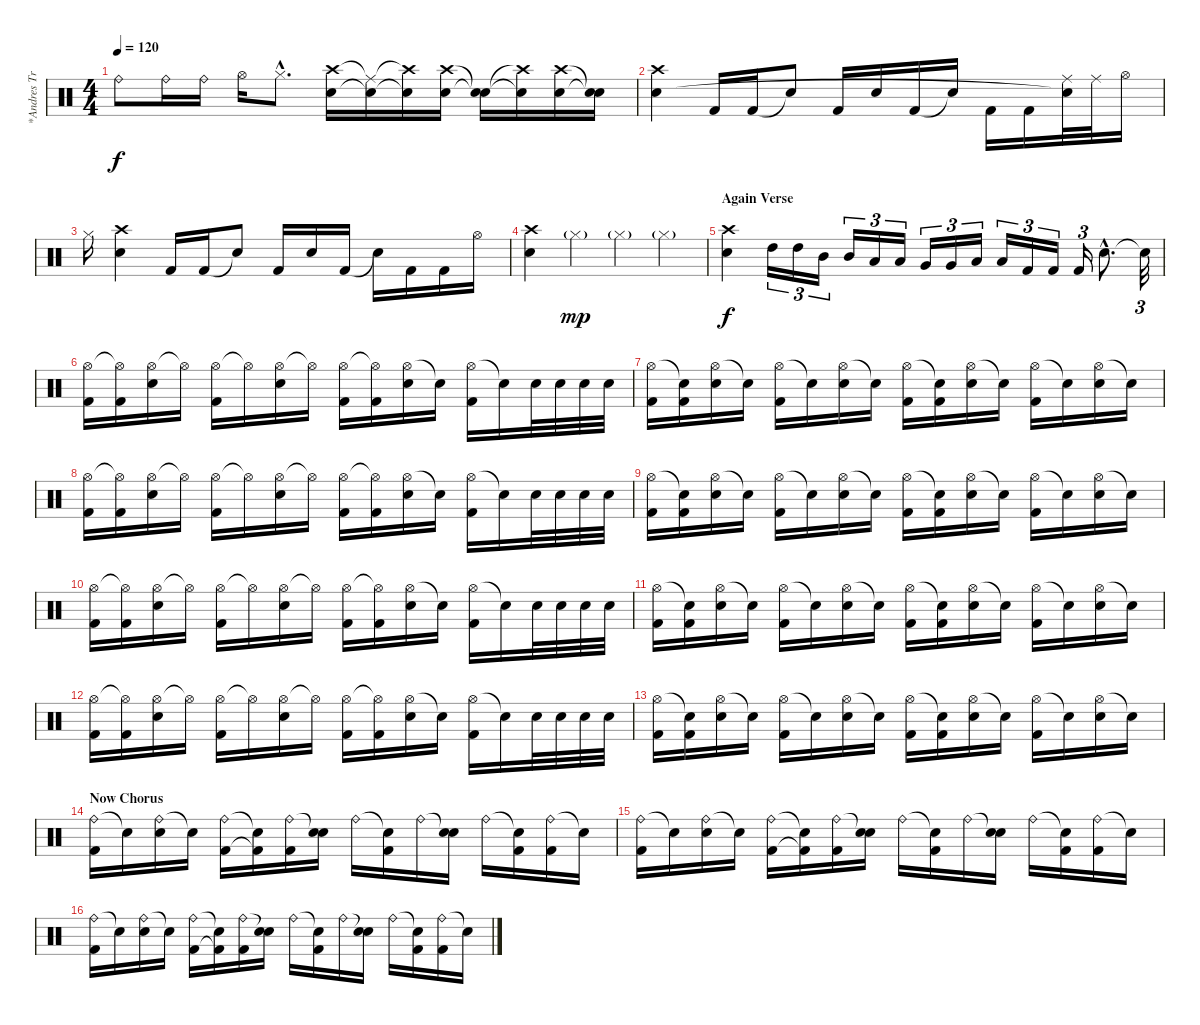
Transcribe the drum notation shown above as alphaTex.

\track ("*Andres Trujillo" "*Andres Tr") {instrument percussion}
\staff {score}
\articulation defaults
\ts (4 4)
\tempo 120
\clef neutral
\ks c "Ride (bell)".8{dy f} "Ride (bell)".16 "Ride (bell)".16 "Hi-Hat (open)".16 "Hi-Hat (closed)"{hac}.8{d}
("Crash high (hit)" "Electric Snare (hit)").16 ("Ride (middle)"{t} "Snare (hit)"{t}).16 ("Crash high (hit)"{t} "Electric Snare (hit)"{t}).16 ("Crash high (hit)" "Electric Snare (hit)").16 ("Electric Snare (hit)"{t} "Snare (hit)"{t}).16 ("Crash high (hit)"{t} "Electric Snare (hit)"{t}).16 ("Crash high (hit)" "Electric Snare (hit)").16 ("Snare (hit)"{t} "Snare (hit)"{t}).16 |
("Crash high (hit)" "Electric Snare (hit)").4 "Kick (hit) 2".16 "Kick (hit) 2".16 "Snare (hit)"{t}.8 "Kick (hit) 2".16 "Electric Snare (hit)".16 "Kick (hit) 2".16 "Snare (hit)"{t}.16 "Kick (hit) 2".16 "Kick (hit) 2".16 ("Ride (middle)" "Snare (hit)"{t}).32 "Ride (middle)".32 "Hi-Hat (open)".16 |
"Hi-Hat (closed)".16 ("Crash high (hit)" "Electric Snare (hit)").4 "Kick (hit) 2".16 "Kick (hit) 2".16 "Snare (hit)"{t}.8 "Kick (hit) 2".16 "Electric Snare (hit)".16 "Kick (hit) 2".16 "Snare (hit)"{t}.16 "Kick (hit) 2".16 "Kick (hit) 2".16 "Hi-Hat (open)".16 |
("Crash high (hit)" "Electric Snare (hit)").4 "Hi-Hat (closed)"{g}.4{dy mp} "Hi-Hat (closed)"{g}.4 "Hi-Hat (closed)"{g}.4 |
\section ("" "Again Verse")
("Crash high (hit)" "Electric Snare (hit)").4{dy f} "High Tom (hit)".16{tu (3 2)} "High Tom (hit)".16{tu (3 2)} "Mid Tom (hit)".16{tu (3 2)} "Mid Tom (hit)".16{tu (3 2)} "Low Tom (hit)".16{tu (3 2)} "Low Tom (hit)".16{tu (3 2)} "Very Low Tom (hit)".16{tu (3 2)} "Very Low Tom (hit)".16{tu (3 2)} "Low Floor Tom (hit)".16{tu (3 2)} "Low Floor Tom (hit)".16{tu (3 2)} "Kick (hit) 2".16{tu (3 2)} "Kick (hit) 2".16{tu (3 2)} "Kick (hit) 2".16{tu (3 2)} "Electric Snare (hit)"{hac}.8{d} "Snare (hit)"{t}.32{tu (3 2)} |
("Hi-Hat (open)" "Kick (hit) 2").16 ("Hi-Hat (open)"{t} "Kick (hit) 2").16 ("Hi-Hat (open)" "Electric Snare (hit)").16 "Hi-Hat (open)"{t}.16 ("Hi-Hat (open)" "Kick (hit) 2").16 "Hi-Hat (open)"{t}.16 ("Hi-Hat (open)" "Electric Snare (hit)").16 "Hi-Hat (open)"{t}.16 ("Hi-Hat (open)" "Kick (hit) 2").16 ("Hi-Hat (open)"{t} "Kick (hit) 2").16 ("Hi-Hat (open)" "Electric Snare (hit)").16 "Snare (hit)"{t}.16 ("Hi-Hat (open)" "Kick (hit) 2").16 "Snare (hit)"{t}.16 "Electric Snare (hit)".32 "Electric Snare (hit)".32 "Electric Snare (hit)".32 "Electric Snare (hit)".32 |
("Hi-Hat (open)" "Kick (hit) 2").16 ("Snare (hit)"{t} "Kick (hit) 2").16 ("Hi-Hat (open)" "Electric Snare (hit)").16 "Snare (hit)"{t}.16 ("Hi-Hat (open)" "Kick (hit) 2").16 "Snare (hit)"{t}.16 ("Hi-Hat (open)" "Electric Snare (hit)").16 "Snare (hit)"{t}.16 ("Hi-Hat (open)" "Kick (hit) 2").16 ("Snare (hit)"{t} "Kick (hit) 2").16 ("Hi-Hat (open)" "Electric Snare (hit)").16 "Snare (hit)"{t}.16 ("Hi-Hat (open)" "Kick (hit) 2").16 "Snare (hit)"{t}.16 ("Hi-Hat (open)" "Electric Snare (hit)").16 "Snare (hit)"{t}.16 |
("Hi-Hat (open)" "Kick (hit) 2").16 ("Hi-Hat (open)"{t} "Kick (hit) 2").16 ("Hi-Hat (open)" "Electric Snare (hit)").16 "Hi-Hat (open)"{t}.16 ("Hi-Hat (open)" "Kick (hit) 2").16 "Hi-Hat (open)"{t}.16 ("Hi-Hat (open)" "Electric Snare (hit)").16 "Hi-Hat (open)"{t}.16 ("Hi-Hat (open)" "Kick (hit) 2").16 ("Hi-Hat (open)"{t} "Kick (hit) 2").16 ("Hi-Hat (open)" "Electric Snare (hit)").16 "Snare (hit)"{t}.16 ("Hi-Hat (open)" "Kick (hit) 2").16 "Snare (hit)"{t}.16 "Electric Snare (hit)".32 "Electric Snare (hit)".32 "Electric Snare (hit)".32 "Electric Snare (hit)".32 |
("Hi-Hat (open)" "Kick (hit) 2").16 ("Snare (hit)"{t} "Kick (hit) 2").16 ("Hi-Hat (open)" "Electric Snare (hit)").16 "Snare (hit)"{t}.16 ("Hi-Hat (open)" "Kick (hit) 2").16 "Snare (hit)"{t}.16 ("Hi-Hat (open)" "Electric Snare (hit)").16 "Snare (hit)"{t}.16 ("Hi-Hat (open)" "Kick (hit) 2").16 ("Snare (hit)"{t} "Kick (hit) 2").16 ("Hi-Hat (open)" "Electric Snare (hit)").16 "Snare (hit)"{t}.16 ("Hi-Hat (open)" "Kick (hit) 2").16 "Snare (hit)"{t}.16 ("Hi-Hat (open)" "Electric Snare (hit)").16 "Snare (hit)"{t}.16 |
("Hi-Hat (open)" "Kick (hit) 2").16 ("Hi-Hat (open)"{t} "Kick (hit) 2").16 ("Hi-Hat (open)" "Electric Snare (hit)").16 "Hi-Hat (open)"{t}.16 ("Hi-Hat (open)" "Kick (hit) 2").16 "Hi-Hat (open)"{t}.16 ("Hi-Hat (open)" "Electric Snare (hit)").16 "Hi-Hat (open)"{t}.16 ("Hi-Hat (open)" "Kick (hit) 2").16 ("Hi-Hat (open)"{t} "Kick (hit) 2").16 ("Hi-Hat (open)" "Electric Snare (hit)").16 "Snare (hit)"{t}.16 ("Hi-Hat (open)" "Kick (hit) 2").16 "Snare (hit)"{t}.16 "Electric Snare (hit)".32 "Electric Snare (hit)".32 "Electric Snare (hit)".32 "Electric Snare (hit)".32 |
("Hi-Hat (open)" "Kick (hit) 2").16 ("Snare (hit)"{t} "Kick (hit) 2").16 ("Hi-Hat (open)" "Electric Snare (hit)").16 "Snare (hit)"{t}.16 ("Hi-Hat (open)" "Kick (hit) 2").16 "Snare (hit)"{t}.16 ("Hi-Hat (open)" "Electric Snare (hit)").16 "Snare (hit)"{t}.16 ("Hi-Hat (open)" "Kick (hit) 2").16 ("Snare (hit)"{t} "Kick (hit) 2").16 ("Hi-Hat (open)" "Electric Snare (hit)").16 "Snare (hit)"{t}.16 ("Hi-Hat (open)" "Kick (hit) 2").16 "Snare (hit)"{t}.16 ("Hi-Hat (open)" "Electric Snare (hit)").16 "Snare (hit)"{t}.16 |
("Hi-Hat (open)" "Kick (hit) 2").16 ("Hi-Hat (open)"{t} "Kick (hit) 2").16 ("Hi-Hat (open)" "Electric Snare (hit)").16 "Hi-Hat (open)"{t}.16 ("Hi-Hat (open)" "Kick (hit) 2").16 "Hi-Hat (open)"{t}.16 ("Hi-Hat (open)" "Electric Snare (hit)").16 "Hi-Hat (open)"{t}.16 ("Hi-Hat (open)" "Kick (hit) 2").16 ("Hi-Hat (open)"{t} "Kick (hit) 2").16 ("Hi-Hat (open)" "Electric Snare (hit)").16 "Snare (hit)"{t}.16 ("Hi-Hat (open)" "Kick (hit) 2").16 "Snare (hit)"{t}.16 "Electric Snare (hit)".32 "Electric Snare (hit)".32 "Electric Snare (hit)".32 "Electric Snare (hit)".32 |
("Hi-Hat (open)" "Kick (hit) 2").16 ("Snare (hit)"{t} "Kick (hit) 2").16 ("Hi-Hat (open)" "Electric Snare (hit)").16 "Snare (hit)"{t}.16 ("Hi-Hat (open)" "Kick (hit) 2").16 "Snare (hit)"{t}.16 ("Hi-Hat (open)" "Electric Snare (hit)").16 "Snare (hit)"{t}.16 ("Hi-Hat (open)" "Kick (hit) 2").16 ("Snare (hit)"{t} "Kick (hit) 2").16 ("Hi-Hat (open)" "Electric Snare (hit)").16 "Snare (hit)"{t}.16 ("Hi-Hat (open)" "Kick (hit) 2").16 "Snare (hit)"{t}.16 ("Hi-Hat (open)" "Electric Snare (hit)").16 "Snare (hit)"{t}.16 |
\section ("" "Now Chorus")
("Ride (bell)" "Kick (hit) 2").16 "Snare (hit)"{t}.16 ("Ride (bell)" "Electric Snare (hit)").16 "Snare (hit)"{t}.16 ("Ride (bell)" "Kick (hit) 2").16 ("Snare (hit)"{t} "Kick (hit) 2"{t}).16 ("Ride (bell)" "Kick (hit) 2").16 ("Snare (hit)"{t} "Electric Snare (hit)").16 "Ride (bell)".16 ("Snare (hit)"{t} "Kick (hit) 2").16 "Ride (bell)".16 ("Snare (hit)"{t} "Electric Snare (hit)").16 "Ride (bell)".16 ("Snare (hit)"{t} "Kick (hit) 2").16 ("Ride (bell)" "Kick (hit) 2").16 "Snare (hit)"{t}.16 |
("Ride (bell)" "Kick (hit) 2").16 "Snare (hit)"{t}.16 ("Ride (bell)" "Electric Snare (hit)").16 "Snare (hit)"{t}.16 ("Ride (bell)" "Kick (hit) 2").16 ("Snare (hit)"{t} "Kick (hit) 2"{t}).16 ("Ride (bell)" "Kick (hit) 2").16 ("Snare (hit)"{t} "Electric Snare (hit)").16 "Ride (bell)".16 ("Snare (hit)"{t} "Kick (hit) 2").16 "Ride (bell)".16 ("Snare (hit)"{t} "Electric Snare (hit)").16 "Ride (bell)".16 ("Snare (hit)"{t} "Kick (hit) 2").16 ("Ride (bell)" "Kick (hit) 2").16 "Snare (hit)"{t}.16 |
("Ride (bell)" "Kick (hit) 2").16 "Snare (hit)"{t}.16 ("Ride (bell)" "Electric Snare (hit)").16 "Snare (hit)"{t}.16 ("Ride (bell)" "Kick (hit) 2").16 ("Snare (hit)"{t} "Kick (hit) 2"{t}).16 ("Ride (bell)" "Kick (hit) 2").16 ("Snare (hit)"{t} "Electric Snare (hit)").16 "Ride (bell)".16 ("Snare (hit)"{t} "Kick (hit) 2").16 "Ride (bell)".16 ("Snare (hit)"{t} "Electric Snare (hit)").16 "Ride (bell)".16 ("Snare (hit)"{t} "Kick (hit) 2").16 ("Ride (bell)" "Kick (hit) 2").16 "Snare (hit)"{t}.16
